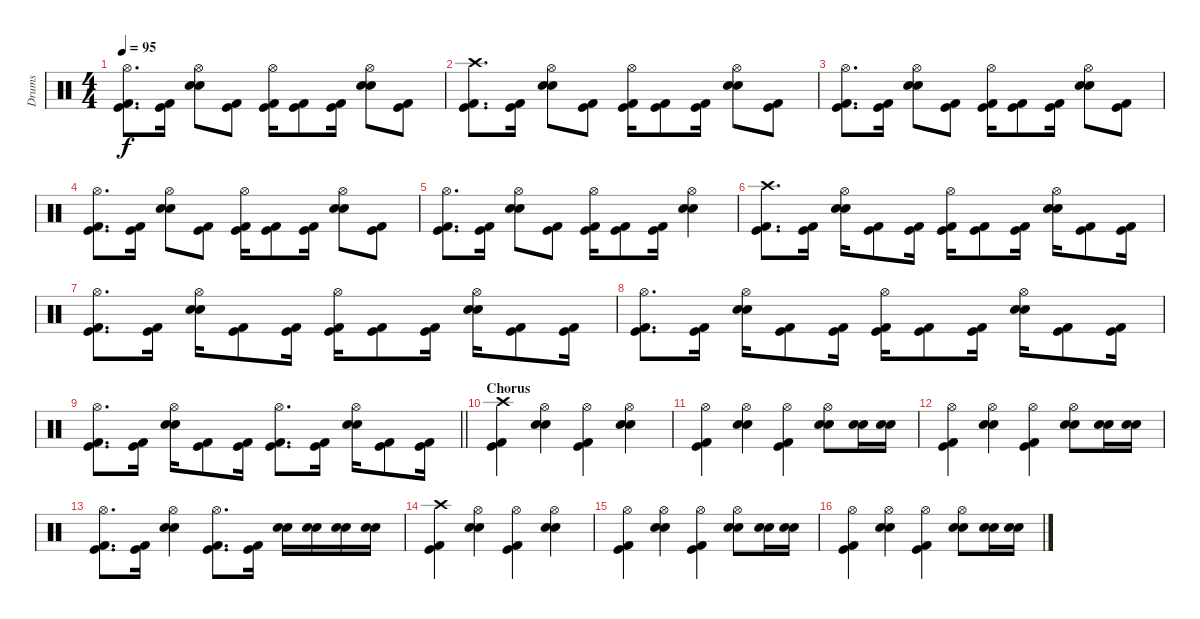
\track ("Drums" "Drums") {instrument percussion}
\staff {score}
\articulation defaults
\ts (4 4)
\tempo 95
\clef neutral
\ks c
("Hi-Hat (open)" "Kick (hit)" "Kick (hit) 2").8{d dy f} ("Kick (hit)" "Kick (hit) 2").16 ("Hi-Hat (open)" "Snare (hit) 2" "Electric Snare (hit)").8 ("Kick (hit)" "Kick (hit) 2").8 ("Hi-Hat (open)" "Kick (hit)" "Kick (hit) 2").16 ("Kick (hit)" "Kick (hit) 2").8 ("Kick (hit)" "Kick (hit) 2").16 ("Hi-Hat (open)" "Snare (hit) 2" "Electric Snare (hit)").8 ("Kick (hit)" "Kick (hit) 2").8 |
("Crash high (hit)" "Kick (hit)" "Kick (hit) 2").8{d} ("Kick (hit)" "Kick (hit) 2").16 ("Hi-Hat (open)" "Snare (hit) 2" "Electric Snare (hit)").8 ("Kick (hit)" "Kick (hit) 2").8 ("Hi-Hat (open)" "Kick (hit)" "Kick (hit) 2").16 ("Kick (hit)" "Kick (hit) 2").8 ("Kick (hit)" "Kick (hit) 2").16 ("Hi-Hat (open)" "Snare (hit) 2" "Electric Snare (hit)").8 ("Kick (hit)" "Kick (hit) 2").8 |
("Hi-Hat (open)" "Kick (hit)" "Kick (hit) 2").8{d} ("Kick (hit)" "Kick (hit) 2").16 ("Hi-Hat (open)" "Snare (hit) 2" "Electric Snare (hit)").8 ("Kick (hit)" "Kick (hit) 2").8 ("Hi-Hat (open)" "Kick (hit)" "Kick (hit) 2").16 ("Kick (hit)" "Kick (hit) 2").8 ("Kick (hit)" "Kick (hit) 2").16 ("Hi-Hat (open)" "Snare (hit) 2" "Electric Snare (hit)").8 ("Kick (hit)" "Kick (hit) 2").8 |
("Hi-Hat (open)" "Kick (hit)" "Kick (hit) 2").8{d} ("Kick (hit)" "Kick (hit) 2").16 ("Hi-Hat (open)" "Snare (hit) 2" "Electric Snare (hit)").8 ("Kick (hit)" "Kick (hit) 2").8 ("Hi-Hat (open)" "Kick (hit)" "Kick (hit) 2").16 ("Kick (hit)" "Kick (hit) 2").8 ("Kick (hit)" "Kick (hit) 2").16 ("Hi-Hat (open)" "Snare (hit) 2" "Electric Snare (hit)").8 ("Kick (hit)" "Kick (hit) 2").8 |
("Hi-Hat (open)" "Kick (hit)" "Kick (hit) 2").8{d} ("Kick (hit)" "Kick (hit) 2").16 ("Hi-Hat (open)" "Snare (hit) 2" "Electric Snare (hit)").8 ("Kick (hit)" "Kick (hit) 2").8 ("Hi-Hat (open)" "Kick (hit)" "Kick (hit) 2").16 ("Kick (hit)" "Kick (hit) 2").8 ("Kick (hit)" "Kick (hit) 2").16 ("Hi-Hat (open)" "Snare (hit) 2" "Electric Snare (hit)").4 |
("Crash high (hit)" "Kick (hit)" "Kick (hit) 2").8{d} ("Kick (hit)" "Kick (hit) 2").16 ("Hi-Hat (open)" "Snare (hit) 2" "Electric Snare (hit)").16 ("Kick (hit)" "Kick (hit) 2").8 ("Kick (hit)" "Kick (hit) 2").16 ("Hi-Hat (open)" "Kick (hit)" "Kick (hit) 2").16 ("Kick (hit)" "Kick (hit) 2").8 ("Kick (hit)" "Kick (hit) 2").16 ("Hi-Hat (open)" "Snare (hit) 2" "Electric Snare (hit)").16 ("Kick (hit)" "Kick (hit) 2").8 ("Kick (hit)" "Kick (hit) 2").16 |
("Hi-Hat (open)" "Kick (hit)" "Kick (hit) 2").8{d} ("Kick (hit)" "Kick (hit) 2").16 ("Hi-Hat (open)" "Snare (hit) 2" "Electric Snare (hit)").16 ("Kick (hit)" "Kick (hit) 2").8 ("Kick (hit)" "Kick (hit) 2").16 ("Hi-Hat (open)" "Kick (hit)" "Kick (hit) 2").16 ("Kick (hit)" "Kick (hit) 2").8 ("Kick (hit)" "Kick (hit) 2").16 ("Hi-Hat (open)" "Snare (hit) 2" "Electric Snare (hit)").16 ("Kick (hit)" "Kick (hit) 2").8 ("Kick (hit)" "Kick (hit) 2").16 |
("Hi-Hat (open)" "Kick (hit)" "Kick (hit) 2").8{d} ("Kick (hit)" "Kick (hit) 2").16 ("Hi-Hat (open)" "Snare (hit) 2" "Electric Snare (hit)").16 ("Kick (hit)" "Kick (hit) 2").8 ("Kick (hit)" "Kick (hit) 2").16 ("Hi-Hat (open)" "Kick (hit)" "Kick (hit) 2").16 ("Kick (hit)" "Kick (hit) 2").8 ("Kick (hit)" "Kick (hit) 2").16 ("Hi-Hat (open)" "Snare (hit) 2" "Electric Snare (hit)").16 ("Kick (hit)" "Kick (hit) 2").8 ("Kick (hit)" "Kick (hit) 2").16 |
\barLineRight lightlight
("Hi-Hat (open)" "Kick (hit)" "Kick (hit) 2").8{d} ("Kick (hit)" "Kick (hit) 2").16 ("Hi-Hat (open)" "Snare (hit) 2" "Electric Snare (hit)").16 ("Kick (hit)" "Kick (hit) 2").8 ("Kick (hit)" "Kick (hit) 2").16 ("Hi-Hat (open)" "Kick (hit)" "Kick (hit) 2").8{d} ("Kick (hit)" "Kick (hit) 2").16 ("Hi-Hat (open)" "Snare (hit) 2" "Electric Snare (hit)").16 ("Kick (hit)" "Kick (hit) 2").8 ("Kick (hit)" "Kick (hit) 2").16 |
\section ("" "Chorus")
("Crash high (hit)" "Kick (hit)" "Kick (hit) 2").4 ("Hi-Hat (open)" "Snare (hit) 2" "Electric Snare (hit)").4 ("Hi-Hat (open)" "Kick (hit)" "Kick (hit) 2").4 ("Hi-Hat (open)" "Snare (hit) 2" "Electric Snare (hit)").4 |
("Hi-Hat (open)" "Kick (hit)" "Kick (hit) 2").4 ("Hi-Hat (open)" "Snare (hit) 2" "Electric Snare (hit)").4 ("Hi-Hat (open)" "Kick (hit)" "Kick (hit) 2").4 ("Hi-Hat (open)" "Snare (hit) 2" "Electric Snare (hit)").8 ("Snare (hit) 2" "Electric Snare (hit)").16 ("Snare (hit) 2" "Electric Snare (hit)").16 |
("Hi-Hat (open)" "Kick (hit)" "Kick (hit) 2").4 ("Hi-Hat (open)" "Snare (hit) 2" "Electric Snare (hit)").4 ("Hi-Hat (open)" "Kick (hit)" "Kick (hit) 2").4 ("Hi-Hat (open)" "Snare (hit) 2" "Electric Snare (hit)").8 ("Snare (hit) 2" "Electric Snare (hit)").16 ("Snare (hit) 2" "Electric Snare (hit)").16 |
("Hi-Hat (open)" "Kick (hit)" "Kick (hit) 2").8{d} ("Kick (hit)" "Kick (hit) 2").16 ("Hi-Hat (open)" "Snare (hit) 2" "Electric Snare (hit)").4 ("Hi-Hat (open)" "Kick (hit)" "Kick (hit) 2").8{d} ("Kick (hit)" "Kick (hit) 2").16 ("Snare (hit) 2" "Electric Snare (hit)").16 ("Snare (hit) 2" "Electric Snare (hit)").16 ("Snare (hit) 2" "Electric Snare (hit)").16 ("Snare (hit) 2" "Electric Snare (hit)").16 |
("Crash high (hit)" "Kick (hit)" "Kick (hit) 2").4 ("Hi-Hat (open)" "Snare (hit) 2" "Electric Snare (hit)").4 ("Hi-Hat (open)" "Kick (hit)" "Kick (hit) 2").4 ("Hi-Hat (open)" "Snare (hit) 2" "Electric Snare (hit)").4 |
("Hi-Hat (open)" "Kick (hit)" "Kick (hit) 2").4 ("Hi-Hat (open)" "Snare (hit) 2" "Electric Snare (hit)").4 ("Hi-Hat (open)" "Kick (hit)" "Kick (hit) 2").4 ("Hi-Hat (open)" "Snare (hit) 2" "Electric Snare (hit)").8 ("Snare (hit) 2" "Electric Snare (hit)").16 ("Snare (hit) 2" "Electric Snare (hit)").16 |
("Hi-Hat (open)" "Kick (hit)" "Kick (hit) 2").4 ("Hi-Hat (open)" "Snare (hit) 2" "Electric Snare (hit)").4 ("Hi-Hat (open)" "Kick (hit)" "Kick (hit) 2").4 ("Hi-Hat (open)" "Snare (hit) 2" "Electric Snare (hit)").8 ("Snare (hit) 2" "Electric Snare (hit)").16 ("Snare (hit) 2" "Electric Snare (hit)").16
